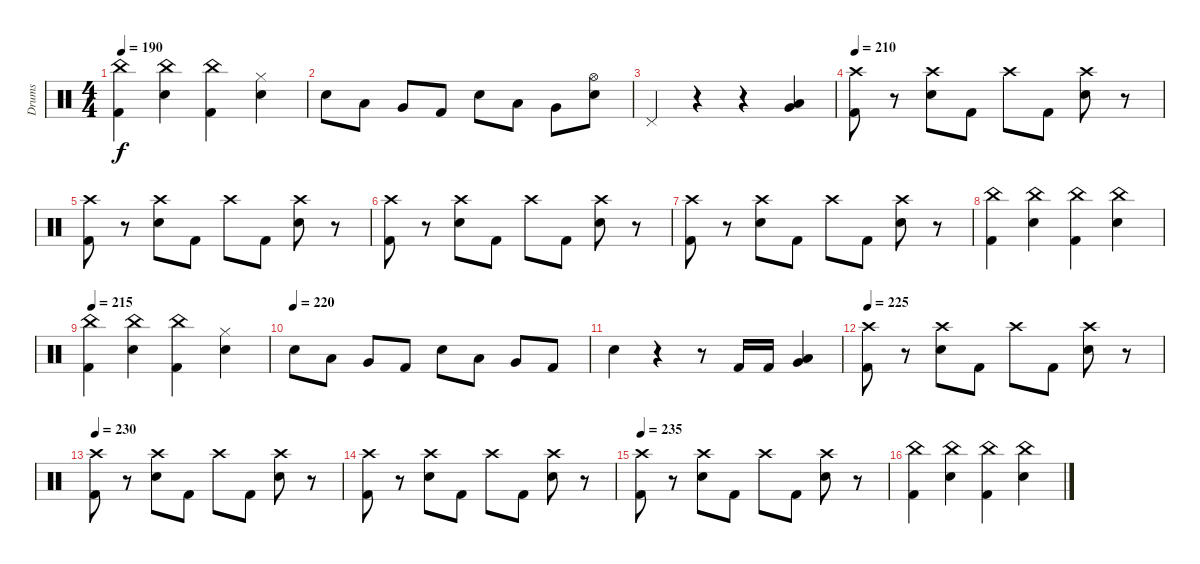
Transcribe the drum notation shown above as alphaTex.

\track ("Drums" "Drums") {instrument percussion}
\staff {score}
\articulation defaults
\ts (4 4)
\tempo 190
\clef neutral
\ks c
("China (hit)" "Kick (hit) 2").4{dy f} ("China (hit)" "Snare (hit) 2").4 ("China (hit)" "Kick (hit) 2").4 ("Hi-Hat (closed)" "Snare (hit) 2").4 |
"Snare (hit) 2".8 "Low Tom (hit)".8 "Very Low Tom (hit)".8 "Kick (hit) 2".8 "Snare (hit) 2".8 "Low Tom (hit)".8 "Very Low Tom (hit)".8 ("Hi-Hat (open)" "Snare (hit) 2").8 |
"Pedal Hi-Hat (hit)".4 r.4 r.4 ("Low Floor Tom (hit)" "Very Low Tom (hit)").4 |
\tempo 210
("Crash high (hit)" "Kick (hit) 2").8 r.8 ("Crash high (hit)" "Snare (hit) 2").8 "Kick (hit) 2".8 "Crash high (hit)".8 "Kick (hit) 2".8 ("Crash high (hit)" "Snare (hit) 2").8 r.8 |
("Crash high (hit)" "Kick (hit) 2").8 r.8 ("Crash high (hit)" "Snare (hit) 2").8 "Kick (hit) 2".8 "Crash high (hit)".8 "Kick (hit) 2".8 ("Crash high (hit)" "Snare (hit) 2").8 r.8 |
("Crash high (hit)" "Kick (hit) 2").8 r.8 ("Crash high (hit)" "Snare (hit) 2").8 "Kick (hit) 2".8 "Crash high (hit)".8 "Kick (hit) 2".8 ("Crash high (hit)" "Snare (hit) 2").8 r.8 |
("Crash high (hit)" "Kick (hit) 2").8 r.8 ("Crash high (hit)" "Snare (hit) 2").8 "Kick (hit) 2".8 "Crash high (hit)".8 "Kick (hit) 2".8 ("Crash high (hit)" "Snare (hit) 2").8 r.8 |
("China (hit)" "Kick (hit) 2").4 ("China (hit)" "Snare (hit) 2").4 ("China (hit)" "Kick (hit) 2").4 ("China (hit)" "Snare (hit) 2").4 |
\tempo 215
("China (hit)" "Kick (hit) 2").4 ("China (hit)" "Snare (hit) 2").4 ("China (hit)" "Kick (hit) 2").4 ("Hi-Hat (closed)" "Snare (hit) 2").4 |
\tempo (220)
"Snare (hit) 2".8 "Low Tom (hit)".8 "Very Low Tom (hit)".8 "Kick (hit) 2".8 "Snare (hit) 2".8 "Low Tom (hit)".8 "Very Low Tom (hit)".8 "Kick (hit) 2".8 |
"Snare (hit) 2".4 r.4 r.8 "Kick (hit) 2".16 "Kick (hit) 2".16 ("Low Floor Tom (hit)" "Very Low Tom (hit)").4 |
\tempo 225
("Crash high (hit)" "Kick (hit) 2").8 r.8 ("Crash high (hit)" "Snare (hit) 2").8 "Kick (hit) 2".8 "Crash high (hit)".8 "Kick (hit) 2".8 ("Crash high (hit)" "Snare (hit) 2").8 r.8 |
\tempo 230
("Crash high (hit)" "Kick (hit) 2").8 r.8 ("Crash high (hit)" "Snare (hit) 2").8 "Kick (hit) 2".8 "Crash high (hit)".8 "Kick (hit) 2".8 ("Crash high (hit)" "Snare (hit) 2").8 r.8 |
("Crash high (hit)" "Kick (hit) 2").8 r.8 ("Crash high (hit)" "Snare (hit) 2").8 "Kick (hit) 2".8 "Crash high (hit)".8 "Kick (hit) 2".8 ("Crash high (hit)" "Snare (hit) 2").8 r.8 |
\tempo 235
("Crash high (hit)" "Kick (hit) 2").8 r.8 ("Crash high (hit)" "Snare (hit) 2").8 "Kick (hit) 2".8 "Crash high (hit)".8 "Kick (hit) 2".8 ("Crash high (hit)" "Snare (hit) 2").8 r.8 |
("China (hit)" "Kick (hit) 2").4 ("China (hit)" "Snare (hit) 2").4 ("China (hit)" "Kick (hit) 2").4 ("China (hit)" "Snare (hit) 2").4
